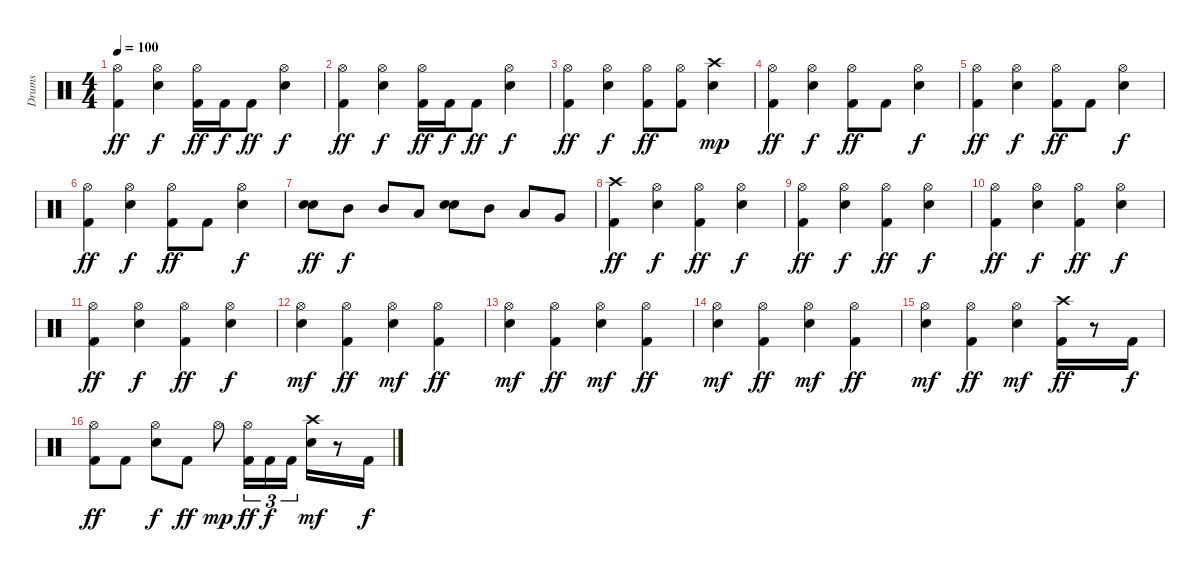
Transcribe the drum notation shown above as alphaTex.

\track ("Drums" "Drums") {instrument percussion}
\staff {score}
\articulation defaults
\ts (4 4)
\tempo 100
\clef neutral
\ks c
("Hi-Hat (open)" "Kick (hit) 2").4{dy ff} ("Hi-Hat (open)" "Electric Snare (hit)").4{dy f} ("Hi-Hat (open)" "Kick (hit) 2").16{dy ff} "Kick (hit) 2".16{dy f} "Kick (hit) 2".8{dy ff} ("Hi-Hat (open)" "Electric Snare (hit)").4{dy f} |
("Hi-Hat (open)" "Kick (hit) 2").4{dy ff} ("Hi-Hat (open)" "Electric Snare (hit)").4{dy f} ("Hi-Hat (open)" "Kick (hit) 2").16{dy ff} "Kick (hit) 2".16{dy f} "Kick (hit) 2".8{dy ff} ("Hi-Hat (open)" "Electric Snare (hit)").4{dy f} |
("Hi-Hat (open)" "Kick (hit) 2").4{dy ff} ("Hi-Hat (open)" "Electric Snare (hit)").4{dy f} ("Hi-Hat (open)" "Kick (hit) 2").8{dy ff} ("Hi-Hat (open)" "Kick (hit) 2").8 ("Crash high (hit)" "Electric Snare (hit)").4{dy mp} |
("Hi-Hat (open)" "Kick (hit) 2").4{dy ff} ("Hi-Hat (open)" "Electric Snare (hit)").4{dy f} ("Hi-Hat (open)" "Kick (hit) 2").8{dy ff} "Kick (hit) 2".8 ("Hi-Hat (open)" "Electric Snare (hit)").4{dy f} |
("Hi-Hat (open)" "Kick (hit) 2").4{dy ff} ("Hi-Hat (open)" "Electric Snare (hit)").4{dy f} ("Hi-Hat (open)" "Kick (hit) 2").8{dy ff} "Kick (hit) 2".8 ("Hi-Hat (open)" "Electric Snare (hit)").4{dy f} |
("Hi-Hat (open)" "Kick (hit) 2").4{dy ff} ("Hi-Hat (open)" "Electric Snare (hit)").4{dy f} ("Hi-Hat (open)" "Kick (hit) 2").8{dy ff} "Kick (hit) 2".8 ("Hi-Hat (open)" "Electric Snare (hit)").4{dy f} |
("Electric Snare (hit)" "Electric Snare (hit)").8{dy ff} "Mid Tom (hit)".8{dy f} "Mid Tom (hit)".8 "Low Tom (hit)".8 ("Electric Snare (hit)" "Electric Snare (hit)").8 "Mid Tom (hit)".8 "Low Tom (hit)".8 "Very Low Tom (hit)".8 |
("Crash high (hit)" "Kick (hit) 2").4{dy ff} ("Hi-Hat (open)" "Electric Snare (hit)").4{dy f} ("Hi-Hat (open)" "Kick (hit) 2").4{dy ff} ("Hi-Hat (open)" "Electric Snare (hit)").4{dy f} |
("Hi-Hat (open)" "Kick (hit) 2").4{dy ff} ("Hi-Hat (open)" "Electric Snare (hit)").4{dy f} ("Hi-Hat (open)" "Kick (hit) 2").4{dy ff} ("Hi-Hat (open)" "Electric Snare (hit)").4{dy f} |
("Hi-Hat (open)" "Kick (hit) 2").4{dy ff} ("Hi-Hat (open)" "Electric Snare (hit)").4{dy f} ("Hi-Hat (open)" "Kick (hit) 2").4{dy ff} ("Hi-Hat (open)" "Electric Snare (hit)").4{dy f} |
("Hi-Hat (open)" "Kick (hit) 2").4{dy ff} ("Hi-Hat (open)" "Electric Snare (hit)").4{dy f} ("Hi-Hat (open)" "Kick (hit) 2").4{dy ff} ("Hi-Hat (open)" "Electric Snare (hit)").4{dy f} |
("Hi-Hat (open)" "Electric Snare (hit)").4{dy mf} ("Hi-Hat (open)" "Kick (hit) 2").4{dy ff} ("Hi-Hat (open)" "Electric Snare (hit)").4{dy mf} ("Hi-Hat (open)" "Kick (hit) 2").4{dy ff} |
("Hi-Hat (open)" "Electric Snare (hit)").4{dy mf} ("Hi-Hat (open)" "Kick (hit) 2").4{dy ff} ("Hi-Hat (open)" "Electric Snare (hit)").4{dy mf} ("Hi-Hat (open)" "Kick (hit) 2").4{dy ff} |
("Hi-Hat (open)" "Electric Snare (hit)").4{dy mf} ("Hi-Hat (open)" "Kick (hit) 2").4{dy ff} ("Hi-Hat (open)" "Electric Snare (hit)").4{dy mf} ("Hi-Hat (open)" "Kick (hit) 2").4{dy ff} |
("Hi-Hat (open)" "Electric Snare (hit)").4{dy mf} ("Hi-Hat (open)" "Kick (hit) 2").4{dy ff} ("Hi-Hat (open)" "Electric Snare (hit)").4{dy mf} ("Crash high (hit)" "Kick (hit) 2").16{dy ff} r.8 "Kick (hit) 2".16{dy f} |
("Hi-Hat (open)" "Kick (hit) 2").8{dy ff} "Kick (hit) 2".8 ("Hi-Hat (open)" "Electric Snare (hit)").8{dy f} "Kick (hit) 2".8{dy ff} "Hi-Hat (open)".8{dy mp} ("Hi-Hat (open)" "Kick (hit) 2").16{tu (3 2) dy ff} "Kick (hit) 2".16{tu (3 2) dy f} "Kick (hit) 2".16{tu (3 2)} ("Crash high (hit)" "Electric Snare (hit)").16{dy mf} r.8 "Kick (hit) 2".16{dy f}
